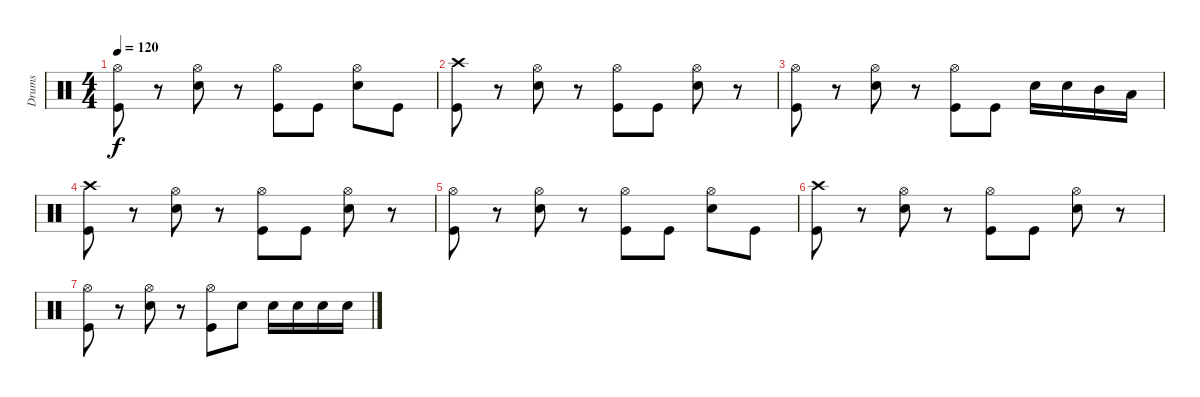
\track ("Drums" "Drums") {instrument percussion}
\staff {score}
\articulation defaults
\ts (4 4)
\tempo 120
\clef neutral
\ks c
("Hi-Hat (open)" "Kick (hit)").8{dy f} r.8 ("Hi-Hat (open)" "Snare (hit) 2").8 r.8 ("Hi-Hat (open)" "Kick (hit)").8 "Kick (hit)".8 ("Hi-Hat (open)" "Snare (hit) 2").8 "Kick (hit)".8 |
("Crash high (hit)" "Kick (hit)").8 r.8 ("Hi-Hat (open)" "Snare (hit) 2").8 r.8 ("Hi-Hat (open)" "Kick (hit)").8 "Kick (hit)".8 ("Hi-Hat (open)" "Snare (hit) 2").8 r.8 |
("Hi-Hat (open)" "Kick (hit)").8 r.8 ("Hi-Hat (open)" "Snare (hit) 2").8 r.8 ("Hi-Hat (open)" "Kick (hit)").8 "Kick (hit)".8 "Snare (hit) 2".16 "Snare (hit) 2".16 "Mid Tom (hit)".16 "Low Tom (hit)".16 |
("Crash high (hit)" "Kick (hit)").8 r.8 ("Hi-Hat (open)" "Snare (hit) 2").8 r.8 ("Hi-Hat (open)" "Kick (hit)").8 "Kick (hit)".8 ("Hi-Hat (open)" "Snare (hit) 2").8 r.8 |
("Hi-Hat (open)" "Kick (hit)").8 r.8 ("Hi-Hat (open)" "Snare (hit) 2").8 r.8 ("Hi-Hat (open)" "Kick (hit)").8 "Kick (hit)".8 ("Hi-Hat (open)" "Snare (hit) 2").8 "Kick (hit)".8 |
("Crash high (hit)" "Kick (hit)").8 r.8 ("Hi-Hat (open)" "Snare (hit) 2").8 r.8 ("Hi-Hat (open)" "Kick (hit)").8 "Kick (hit)".8 ("Hi-Hat (open)" "Snare (hit) 2").8 r.8 |
("Hi-Hat (open)" "Kick (hit)").8 r.8 ("Hi-Hat (open)" "Snare (hit) 2").8 r.8 ("Kick (hit)" "Hi-Hat (open)").8 "Snare (hit) 2".8 "Snare (hit) 2".16 "Snare (hit) 2".16 "Snare (hit) 2".16 "Snare (hit) 2".16
